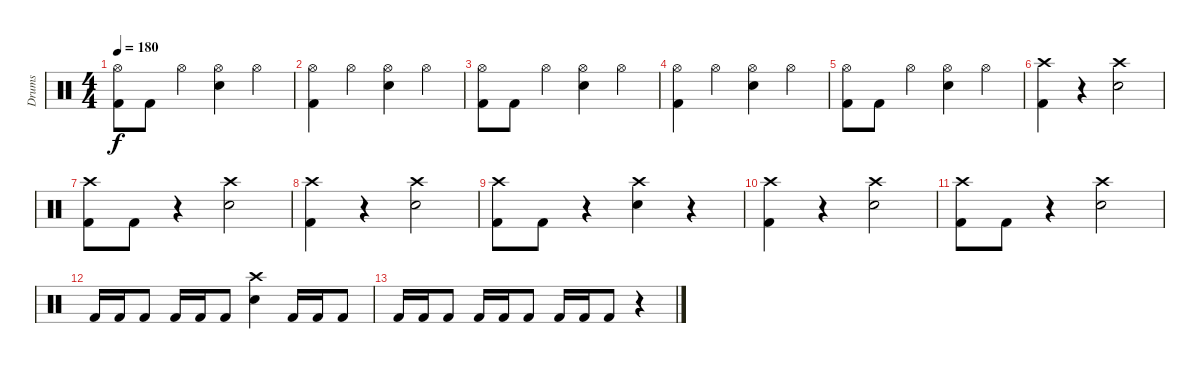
\track ("Drums" "Drums") {instrument percussion}
\staff {score}
\articulation defaults
\ts (4 4)
\tempo 180
\clef neutral
\ks c
("Hi-Hat (open)" "Kick (hit) 2").8{dy f} "Kick (hit) 2".8 "Hi-Hat (open)".4 ("Hi-Hat (open)" "Electric Snare (hit)").4 "Hi-Hat (open)".4 |
("Hi-Hat (open)" "Kick (hit) 2").4 "Hi-Hat (open)".4 ("Hi-Hat (open)" "Electric Snare (hit)").4 "Hi-Hat (open)".4 |
("Hi-Hat (open)" "Kick (hit) 2").8 "Kick (hit) 2".8 "Hi-Hat (open)".4 ("Hi-Hat (open)" "Electric Snare (hit)").4 "Hi-Hat (open)".4 |
("Hi-Hat (open)" "Kick (hit) 2").4 "Hi-Hat (open)".4 ("Hi-Hat (open)" "Electric Snare (hit)").4 "Hi-Hat (open)".4 |
("Hi-Hat (open)" "Kick (hit) 2").8 "Kick (hit) 2".8 "Hi-Hat (open)".4 ("Hi-Hat (open)" "Electric Snare (hit)").4 "Hi-Hat (open)".4 |
("Crash high (hit)" "Kick (hit) 2").4 r.4 ("Crash high (hit)" "Electric Snare (hit)").2 |
("Crash high (hit)" "Kick (hit) 2").8 "Kick (hit) 2".8 r.4 ("Crash high (hit)" "Electric Snare (hit)").2 |
("Crash high (hit)" "Kick (hit) 2").4 r.4 ("Crash high (hit)" "Electric Snare (hit)").2 |
("Crash high (hit)" "Kick (hit) 2").8 "Kick (hit) 2".8 r.4 ("Crash high (hit)" "Electric Snare (hit)").4 r.4 |
("Crash high (hit)" "Kick (hit) 2").4 r.4 ("Crash high (hit)" "Electric Snare (hit)").2 |
("Crash high (hit)" "Kick (hit) 2").8 "Kick (hit) 2".8 r.4 ("Crash high (hit)" "Electric Snare (hit)").2 |
"Kick (hit) 2".16 "Kick (hit) 2".16 "Kick (hit) 2".8 "Kick (hit) 2".16 "Kick (hit) 2".16 "Kick (hit) 2".8 ("Crash high (hit)" "Electric Snare (hit)").4 "Kick (hit) 2".16 "Kick (hit) 2".16 "Kick (hit) 2".8 |
"Kick (hit) 2".16 "Kick (hit) 2".16 "Kick (hit) 2".8 "Kick (hit) 2".16 "Kick (hit) 2".16 "Kick (hit) 2".8 "Kick (hit) 2".16 "Kick (hit) 2".16 "Kick (hit) 2".8 r.4
